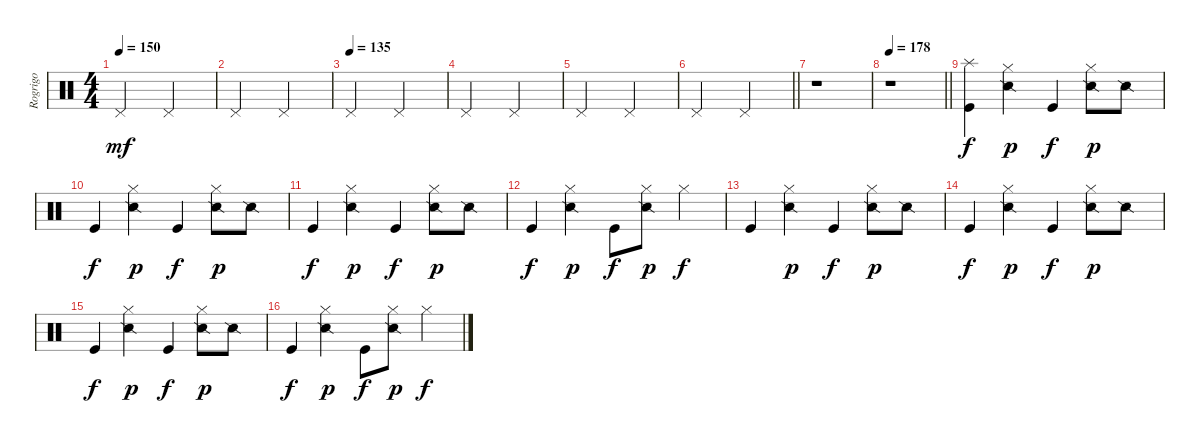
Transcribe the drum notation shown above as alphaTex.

\track ("Rogrigo" "Rogrigo") {instrument percussion}
\staff {score}
\articulation defaults
\ts (4 4)
\tempo 150
\clef neutral
\ks c "Pedal Hi-Hat (hit)".2{dy mf} "Pedal Hi-Hat (hit)".2
|
"Pedal Hi-Hat (hit)".2 "Pedal Hi-Hat (hit)".2 |
\tempo (135)
"Pedal Hi-Hat (hit)".2 "Pedal Hi-Hat (hit)".2 |
"Pedal Hi-Hat (hit)".2 "Pedal Hi-Hat (hit)".2 |
"Pedal Hi-Hat (hit)".2 "Pedal Hi-Hat (hit)".2 |
\barLineRight lightlight "Pedal Hi-Hat (hit)".2 "Pedal Hi-Hat (hit)".2
|
r.1 |
\tempo 178
\barLineRight lightlight
r.1 |
("Splash (hit)" "Kick (hit)").4{dy f} ("Hi-Hat (closed)" "Snare (side stick) 2").4{dy p} "Kick (hit)".4{dy f} ("Hi-Hat (closed)" "Snare (side stick) 2").8{dy p} "Snare (side stick) 2".8 |
"Kick (hit)".4{dy f} ("Hi-Hat (closed)" "Snare (side stick) 2").4{dy p} "Kick (hit)".4{dy f} ("Hi-Hat (closed)" "Snare (side stick) 2").8{dy p} "Snare (side stick) 2".8 |
"Kick (hit)".4{dy f} ("Hi-Hat (closed)" "Snare (side stick) 2").4{dy p} "Kick (hit)".4{dy f} ("Hi-Hat (closed)" "Snare (side stick) 2").8{dy p} "Snare (side stick) 2".8 |
"Kick (hit)".4{dy f} ("Hi-Hat (closed)" "Snare (side stick) 2").4{dy p} "Kick (hit)".8{dy f} ("Hi-Hat (closed)" "Snare (side stick) 2").8{dy p} "Hi-Hat (closed)".4{dy f} |
"Kick (hit)".4 ("Hi-Hat (closed)" "Snare (side stick) 2").4{dy p} "Kick (hit)".4{dy f} ("Hi-Hat (closed)" "Snare (side stick) 2").8{dy p} "Snare (side stick) 2".8 |
"Kick (hit)".4{dy f} ("Hi-Hat (closed)" "Snare (side stick) 2").4{dy p} "Kick (hit)".4{dy f} ("Hi-Hat (closed)" "Snare (side stick) 2").8{dy p} "Snare (side stick) 2".8 |
"Kick (hit)".4{dy f} ("Hi-Hat (closed)" "Snare (side stick) 2").4{dy p} "Kick (hit)".4{dy f} ("Hi-Hat (closed)" "Snare (side stick) 2").8{dy p} "Snare (side stick) 2".8 |
"Kick (hit)".4{dy f} ("Hi-Hat (closed)" "Snare (side stick) 2").4{dy p} "Kick (hit)".8{dy f} ("Hi-Hat (closed)" "Snare (side stick) 2").8{dy p} "Hi-Hat (closed)".4{dy f}
